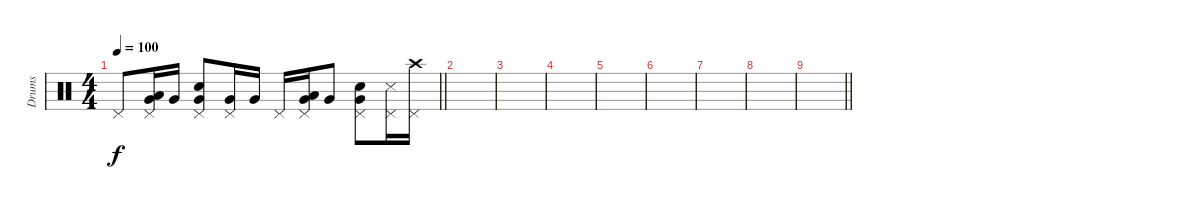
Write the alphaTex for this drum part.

\track ("Drums" "Drums") {instrument percussion}
\staff {score}
\articulation defaults
\ts (4 4)
\tempo 100
\clef neutral
\barLineRight lightlight
\ks c "Pedal Hi-Hat (hit)".8{dy f}
("Low Floor Tom (hit)" "Very Low Tom (hit)" "Pedal Hi-Hat (hit)").16 "Very Low Tom (hit)".16 ("Snare (hit) 2" "Very Low Tom (hit)" "Pedal Hi-Hat (hit)").8 ("Very Low Tom (hit)" "Pedal Hi-Hat (hit)").16 "Very Low Tom (hit)".16 "Pedal Hi-Hat (hit)".16 ("Low Floor Tom (hit)" "Very Low Tom (hit)" "Pedal Hi-Hat (hit)").16 "Very Low Tom (hit)".8 ("Snare (hit) 2" "Very Low Tom (hit)" "Pedal Hi-Hat (hit)").8 ("Snare (side stick) 3" "Pedal Hi-Hat (hit)").16 ("Crash high (hit)" "Pedal Hi-Hat (hit)").16 |
|
|
|
|
|
|
|
\barLineRight lightlight
